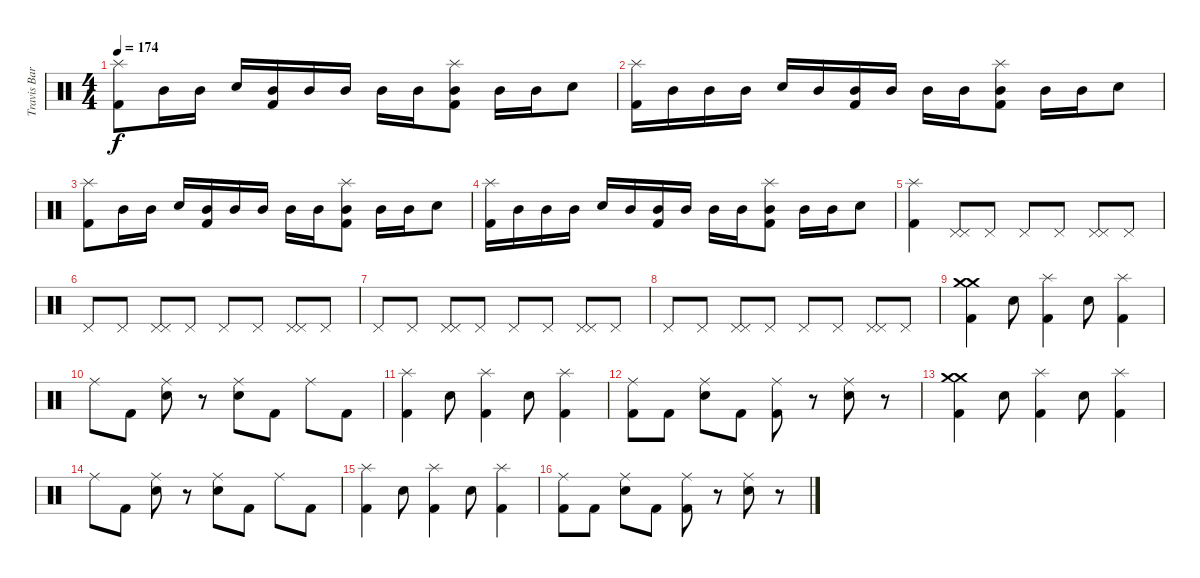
\track ("Travis Barker - Drums" "Travis Bar") {instrument percussion}
\staff {score}
\articulation defaults
\ts (4 4)
\tempo 174
\clef neutral
\ks c
("Splash (hit)" "Kick (hit) 2").8{dy f} "Mid Tom (hit)".16 "Mid Tom (hit)".16 "Electric Snare (hit)".16 ("Mid Tom (hit)" "Kick (hit) 2").16 "Mid Tom (hit)".16 "Mid Tom (hit)".16 "Mid Tom (hit)".16 "Mid Tom (hit)".16 ("Splash (hit)" "Mid Tom (hit)" "Kick (hit) 2").8 "Mid Tom (hit)".16 "Mid Tom (hit)".16 "Electric Snare (hit)".8 |
("Splash (hit)" "Kick (hit) 2").16 "Mid Tom (hit)".16 "Mid Tom (hit)".16 "Mid Tom (hit)".16 "Electric Snare (hit)".16 "Mid Tom (hit)".16 ("Mid Tom (hit)" "Kick (hit) 2").16 "Mid Tom (hit)".16 "Mid Tom (hit)".16 "Mid Tom (hit)".16 ("Splash (hit)" "Mid Tom (hit)" "Kick (hit) 2").8 "Mid Tom (hit)".16 "Mid Tom (hit)".16 "Electric Snare (hit)".8 |
("Splash (hit)" "Kick (hit) 2").8 "Mid Tom (hit)".16 "Mid Tom (hit)".16 "Electric Snare (hit)".16 ("Mid Tom (hit)" "Kick (hit) 2").16 "Mid Tom (hit)".16 "Mid Tom (hit)".16 "Mid Tom (hit)".16 "Mid Tom (hit)".16 ("Splash (hit)" "Mid Tom (hit)" "Kick (hit) 2").8 "Mid Tom (hit)".16 "Mid Tom (hit)".16 "Electric Snare (hit)".8 |
("Splash (hit)" "Kick (hit) 2").16 "Mid Tom (hit)".16 "Mid Tom (hit)".16 "Mid Tom (hit)".16 "Electric Snare (hit)".16 "Mid Tom (hit)".16 ("Mid Tom (hit)" "Kick (hit) 2").16 "Mid Tom (hit)".16 "Mid Tom (hit)".16 "Mid Tom (hit)".16 ("Splash (hit)" "Mid Tom (hit)" "Kick (hit) 2").8 "Mid Tom (hit)".16 "Mid Tom (hit)".16 "Electric Snare (hit)".8 |
("Splash (hit)" "Kick (hit) 2").4 ("Pedal Hi-Hat (hit)" "Pedal Hi-Hat (hit)").8 "Pedal Hi-Hat (hit)".8 "Pedal Hi-Hat (hit)".8 "Pedal Hi-Hat (hit)".8 ("Pedal Hi-Hat (hit)" "Pedal Hi-Hat (hit)").8 "Pedal Hi-Hat (hit)".8 |
"Pedal Hi-Hat (hit)".8 "Pedal Hi-Hat (hit)".8 ("Pedal Hi-Hat (hit)" "Pedal Hi-Hat (hit)").8 "Pedal Hi-Hat (hit)".8 "Pedal Hi-Hat (hit)".8 "Pedal Hi-Hat (hit)".8 ("Pedal Hi-Hat (hit)" "Pedal Hi-Hat (hit)").8 "Pedal Hi-Hat (hit)".8 |
"Pedal Hi-Hat (hit)".8 "Pedal Hi-Hat (hit)".8 ("Pedal Hi-Hat (hit)" "Pedal Hi-Hat (hit)").8 "Pedal Hi-Hat (hit)".8 "Pedal Hi-Hat (hit)".8 "Pedal Hi-Hat (hit)".8 ("Pedal Hi-Hat (hit)" "Pedal Hi-Hat (hit)").8 "Pedal Hi-Hat (hit)".8 |
"Pedal Hi-Hat (hit)".8 "Pedal Hi-Hat (hit)".8 ("Pedal Hi-Hat (hit)" "Pedal Hi-Hat (hit)").8 "Pedal Hi-Hat (hit)".8 "Pedal Hi-Hat (hit)".8 "Pedal Hi-Hat (hit)".8 ("Pedal Hi-Hat (hit)" "Pedal Hi-Hat (hit)").8 "Pedal Hi-Hat (hit)".8 |
("Crash medium (hit)" "Crash medium (hit)" "Kick (hit) 2").4 "Electric Snare (hit)".8 ("Splash (hit)" "Kick (hit) 2").4 "Electric Snare (hit)".8 ("Splash (hit)" "Kick (hit) 2").4 |
"Ride (middle)".8 "Kick (hit) 2".8 ("Ride (middle)" "Electric Snare (hit)").8 r.8 ("Ride (middle)" "Electric Snare (hit)").8 "Kick (hit) 2".8 "Ride (middle)".8 "Kick (hit) 2".8 |
("Splash (hit)" "Kick (hit) 2").4 "Electric Snare (hit)".8 ("Splash (hit)" "Kick (hit) 2").4 "Electric Snare (hit)".8 ("Splash (hit)" "Kick (hit) 2").4 |
("Ride (middle)" "Kick (hit) 2").8 "Kick (hit) 2".8 ("Ride (middle)" "Electric Snare (hit)").8 "Kick (hit) 2".8 ("Ride (middle)" "Kick (hit) 2").8 r.8 ("Ride (middle)" "Electric Snare (hit)").8 r.8 |
("Crash medium (hit)" "Crash medium (hit)" "Kick (hit) 2").4 "Electric Snare (hit)".8 ("Splash (hit)" "Kick (hit) 2").4 "Electric Snare (hit)".8 ("Splash (hit)" "Kick (hit) 2").4 |
"Ride (middle)".8 "Kick (hit) 2".8 ("Ride (middle)" "Electric Snare (hit)").8 r.8 ("Ride (middle)" "Electric Snare (hit)").8 "Kick (hit) 2".8 "Ride (middle)".8 "Kick (hit) 2".8 |
("Splash (hit)" "Kick (hit) 2").4 "Electric Snare (hit)".8 ("Splash (hit)" "Kick (hit) 2").4 "Electric Snare (hit)".8 ("Splash (hit)" "Kick (hit) 2").4 |
("Ride (middle)" "Kick (hit) 2").8 "Kick (hit) 2".8 ("Ride (middle)" "Electric Snare (hit)").8 "Kick (hit) 2".8 ("Ride (middle)" "Kick (hit) 2").8 r.8 ("Ride (middle)" "Electric Snare (hit)").8 r.8
